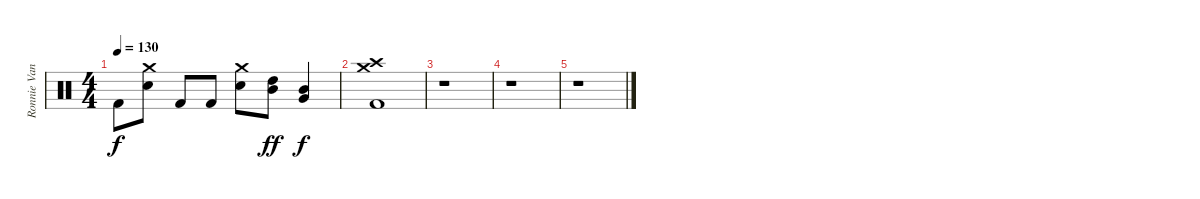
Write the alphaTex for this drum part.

\track ("Ronnie Vannucci Jr." "Ronnie Van") {instrument percussion}
\staff {score}
\articulation defaults
\ts (4 4)
\tempo 130
\clef neutral
\ks c "Kick (hit) 2".8{dy f}
("Crash medium (hit)" "Electric Snare (hit)").8 "Kick (hit) 2".8 "Kick (hit) 2".8 ("Crash medium (hit)" "Electric Snare (hit)").8 ("High Tom (hit)" "Mid Tom (hit)").8{dy ff} ("Mid Tom (hit)" "Very Low Tom (hit)").4{dy f} |
("Crash high (hit)" "Crash medium (hit)" "Kick (hit) 2").1 |
r.1 |
r.1 |
r.1
